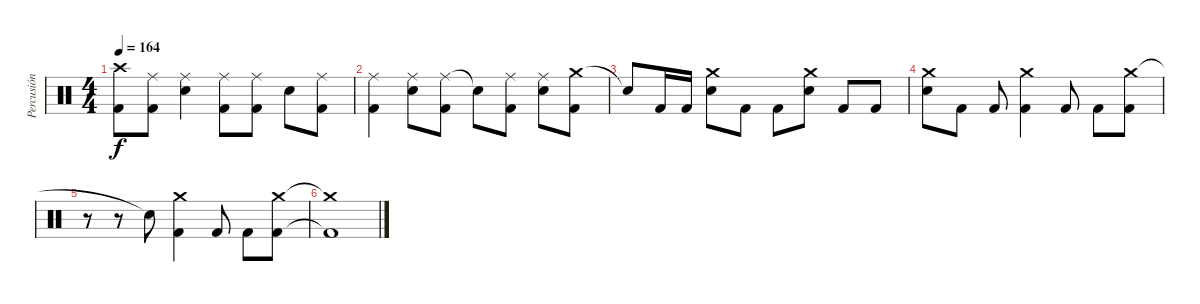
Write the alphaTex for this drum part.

\track ("Percusión" "Percusión") {instrument percussion}
\staff
\articulation defaults
\ts (4 4)
\tempo 164
\clef neutral
\ks c
("Crash high (hit)"{t} "Kick (hit) 2"{t}).8{dy f} ("Ride (middle)" "Kick (hit) 2").8 ("Ride (middle)" "Snare (hit) 2").4 ("Ride (middle)" "Kick (hit) 2").8 ("Ride (middle)" "Kick (hit) 2").8 "Snare (hit) 2".8 ("Ride (middle)" "Kick (hit) 2").8 |
("Ride (middle)" "Kick (hit) 2").4 ("Ride (middle)" "Snare (hit) 2").8 ("Ride (middle)" "Kick (hit) 2").8 "Snare (hit)"{t}.8 ("Ride (middle)" "Kick (hit) 2").8 ("Ride (middle)" "Snare (hit) 2").8 ("Crash medium (hit)" "Kick (hit) 2").8 |
"Snare (hit)"{t}.8 "Kick (hit) 2".16 "Kick (hit) 2".16 ("Crash medium (hit)" "Snare (hit) 2").8 "Kick (hit) 2".8 "Kick (hit) 2".8 ("Crash medium (hit)" "Snare (hit) 2").8 "Kick (hit) 2".8 "Kick (hit) 2".8 |
("Crash medium (hit)" "Snare (hit) 2").8 "Kick (hit) 2".8 "Kick (hit) 2".8 ("Crash medium (hit)" "Kick (hit) 2").4 "Kick (hit) 2".8 "Kick (hit) 2".8 ("Crash medium (hit)" "Kick (hit) 2").8 |
r.8 r.8 "Snare (hit)"{t}.8 ("Crash medium (hit)" "Kick (hit) 2").4 "Kick (hit) 2".8 "Kick (hit) 2".8 ("Crash medium (hit)" "Kick (hit) 2").8 |
("Crash medium (hit)"{t} "Kick (hit) 2"{t}).1
